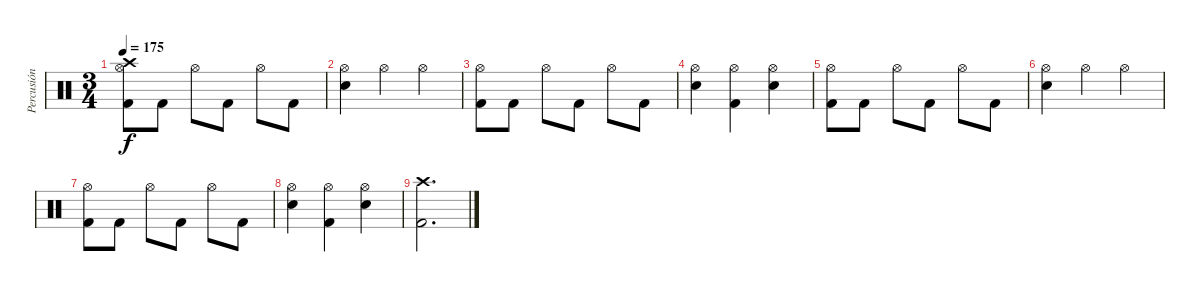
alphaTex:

\track ("Percusión" "Percusión") {instrument percussion}
\staff {score}
\articulation defaults
\ts (3 4)
\tempo 175
\clef neutral
\ks c
("Crash high (hit)" "Hi-Hat (open)" "Kick (hit) 2").8{dy f} "Kick (hit) 2".8 "Hi-Hat (open)".8 "Kick (hit) 2".8 "Hi-Hat (open)".8 "Kick (hit) 2".8 |
("Hi-Hat (open)" "Snare (hit) 2").4 "Hi-Hat (open)".4 "Hi-Hat (open)".4 |
("Hi-Hat (open)" "Kick (hit) 2").8 "Kick (hit) 2".8 "Hi-Hat (open)".8 "Kick (hit) 2".8 "Hi-Hat (open)".8 "Kick (hit) 2".8 |
("Hi-Hat (open)" "Snare (hit) 2").4 ("Hi-Hat (open)" "Kick (hit) 2").4 ("Hi-Hat (open)" "Snare (hit) 2").4 |
("Hi-Hat (open)" "Kick (hit) 2").8 "Kick (hit) 2".8 "Hi-Hat (open)".8 "Kick (hit) 2".8 "Hi-Hat (open)".8 "Kick (hit) 2".8 |
("Hi-Hat (open)" "Snare (hit) 2").4 "Hi-Hat (open)".4 "Hi-Hat (open)".4 |
("Hi-Hat (open)" "Kick (hit) 2").8 "Kick (hit) 2".8 "Hi-Hat (open)".8 "Kick (hit) 2".8 "Hi-Hat (open)".8 "Kick (hit) 2".8 |
("Hi-Hat (open)" "Snare (hit) 2").4 ("Hi-Hat (open)" "Kick (hit) 2").4 ("Hi-Hat (open)" "Snare (hit) 2").4 |
("Crash high (hit)" "Kick (hit) 2").2{d}
